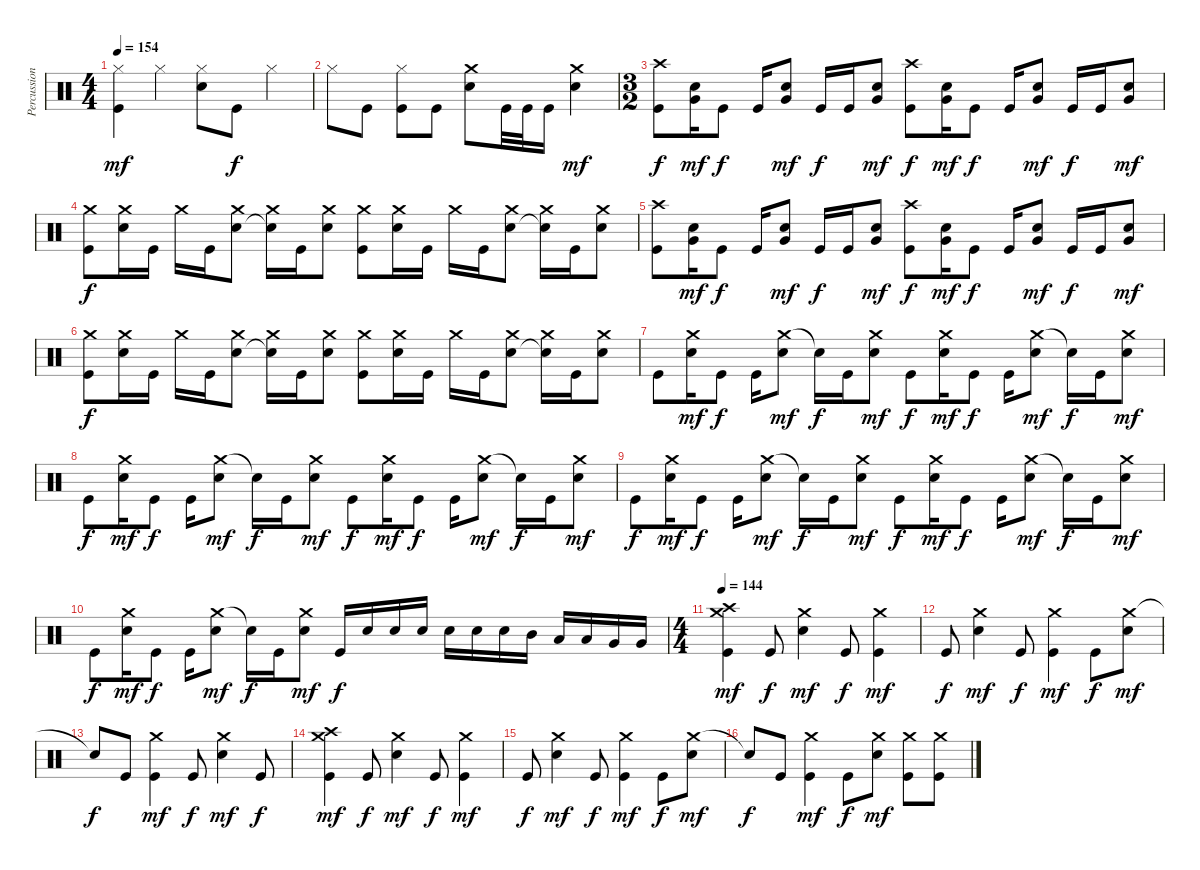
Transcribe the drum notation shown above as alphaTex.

\track ("Percussion" "Percussion") {instrument percussion}
\staff {score}
\articulation defaults
\ts (4 4)
\tempo 154
\clef neutral
\ks c
("Hi-Hat (closed)" "Kick (hit)").4{dy mf} "Hi-Hat (closed)".4 ("Hi-Hat (closed)" "Electric Snare (hit)").8 "Kick (hit)".8{dy f} "Hi-Hat (closed)".4 |
"Hi-Hat (closed)".8 "Kick (hit)".8 ("Hi-Hat (closed)" "Kick (hit)").8 "Kick (hit)".8 ("Crash medium (hit)" "Electric Snare (hit)").8 "Kick (hit)".32 "Kick (hit)".32 "Kick (hit)".16 ("Crash medium (hit)" "Electric Snare (hit)").4{dy mf} |
\ts (3 2)
("Crash high (hit)" "Kick (hit)").8{dy f} ("Very Low Tom (hit)" "Electric Snare (hit)").16{dy mf} "Kick (hit)".8{dy f} "Kick (hit)".16 ("Very Low Tom (hit)" "Electric Snare (hit)").8{dy mf} "Kick (hit)".16{dy f} "Kick (hit)".16 ("Very Low Tom (hit)" "Electric Snare (hit)").8{dy mf} ("Crash high (hit)" "Kick (hit)").8{dy f} ("Very Low Tom (hit)" "Electric Snare (hit)").16{dy mf} "Kick (hit)".8{dy f} "Kick (hit)".16 ("Very Low Tom (hit)" "Electric Snare (hit)").8{dy mf} "Kick (hit)".16{dy f} "Kick (hit)".16 ("Very Low Tom (hit)" "Electric Snare (hit)").8{dy mf} |
("Crash medium (hit)" "Kick (hit)").8{dy f} ("Crash medium (hit)" "Electric Snare (hit)").16 "Kick (hit)".16 "Crash medium (hit)".16 "Kick (hit)".16 ("Crash medium (hit)" "Electric Snare (hit)").8 ("Crash medium (hit)" "Snare (hit)"{t}).16 "Kick (hit)".16 ("Crash medium (hit)" "Electric Snare (hit)").8 ("Crash medium (hit)" "Kick (hit)").8 ("Crash medium (hit)" "Electric Snare (hit)").16 "Kick (hit)".16 "Crash medium (hit)".16 "Kick (hit)".16 ("Crash medium (hit)" "Electric Snare (hit)").8 ("Crash medium (hit)" "Snare (hit)"{t}).16 "Kick (hit)".16 ("Crash medium (hit)" "Electric Snare (hit)").8 |
("Crash high (hit)" "Kick (hit)").8 ("Very Low Tom (hit)" "Electric Snare (hit)").16{dy mf} "Kick (hit)".8{dy f} "Kick (hit)".16 ("Very Low Tom (hit)" "Electric Snare (hit)").8{dy mf} "Kick (hit)".16{dy f} "Kick (hit)".16 ("Very Low Tom (hit)" "Electric Snare (hit)").8{dy mf} ("Crash high (hit)" "Kick (hit)").8{dy f} ("Very Low Tom (hit)" "Electric Snare (hit)").16{dy mf} "Kick (hit)".8{dy f} "Kick (hit)".16 ("Very Low Tom (hit)" "Electric Snare (hit)").8{dy mf} "Kick (hit)".16{dy f} "Kick (hit)".16 ("Very Low Tom (hit)" "Electric Snare (hit)").8{dy mf} |
("Crash medium (hit)" "Kick (hit)").8{dy f} ("Crash medium (hit)" "Electric Snare (hit)").16 "Kick (hit)".16 "Crash medium (hit)".16 "Kick (hit)".16 ("Crash medium (hit)" "Electric Snare (hit)").8 ("Crash medium (hit)" "Snare (hit)"{t}).16 "Kick (hit)".16 ("Crash medium (hit)" "Electric Snare (hit)").8 ("Crash medium (hit)" "Kick (hit)").8 ("Crash medium (hit)" "Electric Snare (hit)").16 "Kick (hit)".16 "Crash medium (hit)".16 "Kick (hit)".16 ("Crash medium (hit)" "Electric Snare (hit)").8 ("Crash medium (hit)" "Snare (hit)"{t}).16 "Kick (hit)".16 ("Crash medium (hit)" "Electric Snare (hit)").8 |
"Kick (hit)".8 ("Crash medium (hit)" "Electric Snare (hit)").16{dy mf} "Kick (hit)".8{dy f} "Kick (hit)".16 ("Crash medium (hit)" "Electric Snare (hit)").8{dy mf} "Snare (hit)"{t}.16{dy f} "Kick (hit)".16 ("Crash medium (hit)" "Electric Snare (hit)").8{dy mf} "Kick (hit)".8{dy f} ("Crash medium (hit)" "Electric Snare (hit)").16{dy mf} "Kick (hit)".8{dy f} "Kick (hit)".16 ("Crash medium (hit)" "Electric Snare (hit)").8{dy mf} "Snare (hit)"{t}.16{dy f} "Kick (hit)".16 ("Crash medium (hit)" "Electric Snare (hit)").8{dy mf} |
"Kick (hit)".8{dy f} ("Crash medium (hit)" "Electric Snare (hit)").16{dy mf} "Kick (hit)".8{dy f} "Kick (hit)".16 ("Crash medium (hit)" "Electric Snare (hit)").8{dy mf} "Snare (hit)"{t}.16{dy f} "Kick (hit)".16 ("Crash medium (hit)" "Electric Snare (hit)").8{dy mf} "Kick (hit)".8{dy f} ("Crash medium (hit)" "Electric Snare (hit)").16{dy mf} "Kick (hit)".8{dy f} "Kick (hit)".16 ("Crash medium (hit)" "Electric Snare (hit)").8{dy mf} "Snare (hit)"{t}.16{dy f} "Kick (hit)".16 ("Crash medium (hit)" "Electric Snare (hit)").8{dy mf} |
"Kick (hit)".8{dy f} ("Crash medium (hit)" "Electric Snare (hit)").16{dy mf} "Kick (hit)".8{dy f} "Kick (hit)".16 ("Crash medium (hit)" "Electric Snare (hit)").8{dy mf} "Snare (hit)"{t}.16{dy f} "Kick (hit)".16 ("Crash medium (hit)" "Electric Snare (hit)").8{dy mf} "Kick (hit)".8{dy f} ("Crash medium (hit)" "Electric Snare (hit)").16{dy mf} "Kick (hit)".8{dy f} "Kick (hit)".16 ("Crash medium (hit)" "Electric Snare (hit)").8{dy mf} "Snare (hit)"{t}.16{dy f} "Kick (hit)".16 ("Crash medium (hit)" "Electric Snare (hit)").8{dy mf} |
"Kick (hit)".8{dy f} ("Crash medium (hit)" "Electric Snare (hit)").16{dy mf} "Kick (hit)".8{dy f} "Kick (hit)".16 ("Crash medium (hit)" "Electric Snare (hit)").8{dy mf} "Snare (hit)"{t}.16{dy f} "Kick (hit)".16 ("Crash medium (hit)" "Electric Snare (hit)").8{dy mf} "Kick (hit)".16{dy f} "Electric Snare (hit)".16 "Electric Snare (hit)".16 "Electric Snare (hit)".16 "Electric Snare (hit)".16 "Electric Snare (hit)".16 "Electric Snare (hit)".16 "Mid Tom (hit)".16 "Low Tom (hit)".16 "Low Tom (hit)".16 "Very Low Tom (hit)".16 "Very Low Tom (hit)".16 |
\ts (4 4)
\tempo 144
("Crash medium (hit)" "Crash high (hit)" "Kick (hit)").4{dy mf} "Kick (hit)".8{dy f} ("Crash medium (hit)" "Electric Snare (hit)").4{dy mf} "Kick (hit)".8{dy f} ("Crash medium (hit)" "Kick (hit)").4{dy mf} |
"Kick (hit)".8{dy f} ("Crash medium (hit)" "Electric Snare (hit)").4{dy mf} "Kick (hit)".8{dy f} ("Crash medium (hit)" "Kick (hit)").4{dy mf} "Kick (hit)".8{dy f} ("Crash medium (hit)" "Electric Snare (hit)").8{dy mf} |
"Snare (hit)"{t}.8{dy f} "Kick (hit)".8 ("Crash medium (hit)" "Kick (hit)").4{dy mf} "Kick (hit)".8{dy f} ("Crash medium (hit)" "Electric Snare (hit)").4{dy mf} "Kick (hit)".8{dy f} |
("Crash medium (hit)" "Crash high (hit)" "Kick (hit)").4{dy mf} "Kick (hit)".8{dy f} ("Crash medium (hit)" "Electric Snare (hit)").4{dy mf} "Kick (hit)".8{dy f} ("Crash medium (hit)" "Kick (hit)").4{dy mf} |
"Kick (hit)".8{dy f} ("Crash medium (hit)" "Electric Snare (hit)").4{dy mf} "Kick (hit)".8{dy f} ("Crash medium (hit)" "Kick (hit)").4{dy mf} "Kick (hit)".8{dy f} ("Crash medium (hit)" "Electric Snare (hit)").8{dy mf} |
"Snare (hit)"{t}.8{dy f} "Kick (hit)".8 ("Crash medium (hit)" "Kick (hit)").4{dy mf} "Kick (hit)".8{dy f} ("Crash medium (hit)" "Electric Snare (hit)").8{dy mf} ("Crash medium (hit)" "Kick (hit)").8 ("Crash medium (hit)" "Kick (hit)").8
